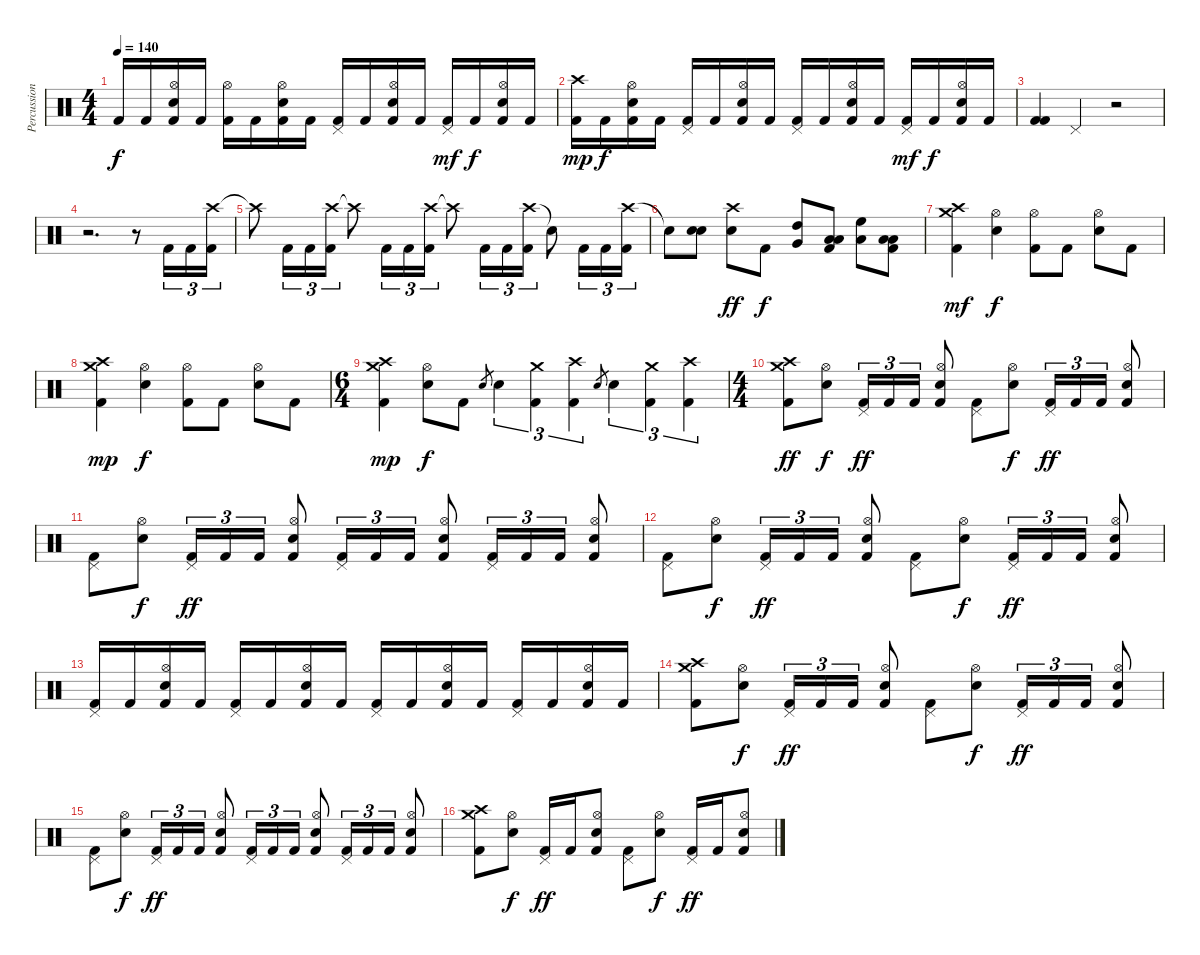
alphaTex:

\track ("Percussion" "Percussion") {instrument percussion}
\staff {score}
\articulation defaults
\ts (4 4)
\tempo 140
\clef neutral
\ks c "Kick (hit) 2".16{dy f} "Kick (hit) 2".16
("Hi-Hat (open)" "Electric Snare (hit)" "Kick (hit) 2").16 "Kick (hit) 2".16 ("Hi-Hat (open)" "Kick (hit) 2").16 "Kick (hit) 2".16 ("Hi-Hat (open)" "Electric Snare (hit)" "Kick (hit) 2").16 "Kick (hit) 2".16 ("Pedal Hi-Hat (hit)" "Kick (hit) 2").16 "Kick (hit) 2".16 ("Hi-Hat (open)" "Electric Snare (hit)" "Kick (hit) 2").16 "Kick (hit) 2".16 ("Pedal Hi-Hat (hit)" "Kick (hit) 2").16{dy mf} "Kick (hit) 2".16{dy f} ("Hi-Hat (open)" "Electric Snare (hit)" "Kick (hit) 2").16 "Kick (hit) 2".16 |
("Crash high (hit)" "Kick (hit) 2").16{dy mp} "Kick (hit) 2".16{dy f} ("Hi-Hat (open)" "Electric Snare (hit)" "Kick (hit) 2").16 "Kick (hit) 2".16 ("Pedal Hi-Hat (hit)" "Kick (hit) 2").16 "Kick (hit) 2".16 ("Hi-Hat (open)" "Electric Snare (hit)" "Kick (hit) 2").16 "Kick (hit) 2".16 ("Pedal Hi-Hat (hit)" "Kick (hit) 2").16 "Kick (hit) 2".16 ("Hi-Hat (open)" "Electric Snare (hit)" "Kick (hit) 2").16 "Kick (hit) 2".16 ("Pedal Hi-Hat (hit)" "Kick (hit) 2").16{dy mf} "Kick (hit) 2".16{dy f} ("Hi-Hat (open)" "Electric Snare (hit)" "Kick (hit) 2").16 "Kick (hit) 2".16 |
("Kick (hit) 2" "Kick (hit) 2").4 "Pedal Hi-Hat (hit)".4 r.2 |
r.2{d} r.8 "Kick (hit) 2".16{tu (3 2)} "Kick (hit) 2".16{tu (3 2)} ("Crash high (hit)" "Kick (hit) 2").16{tu (3 2)} |
"Crash high (hit)"{t}.8 "Kick (hit) 2".16{tu (3 2)} "Kick (hit) 2".16{tu (3 2)} ("Crash high (hit)" "Kick (hit) 2").16{tu (3 2)} "Crash high (hit)"{t}.8 "Kick (hit) 2".16{tu (3 2)} "Kick (hit) 2".16{tu (3 2)} ("Crash high (hit)" "Kick (hit) 2").16{tu (3 2)} "Crash high (hit)"{t}.8 "Kick (hit) 2".16{tu (3 2)} "Kick (hit) 2".16{tu (3 2)} ("Crash high (hit)" "Kick (hit) 2").16{tu (3 2)} "Snare (hit)"{t}.8 "Kick (hit) 2".16{tu (3 2)} "Kick (hit) 2".16{tu (3 2)} ("Crash high (hit)" "Kick (hit) 2").16{tu (3 2)} |
"Snare (hit)"{t}.8 ("Electric Snare (hit)" "Electric Snare (hit)").8 ("Crash high (hit)" "Electric Snare (hit)").8{dy ff} "Kick (hit) 2".8{dy f} ("Very Low Tom (hit)" "High Tom (hit)").8 ("Low Tom (hit)" "Low Tom (hit)" "Kick (hit) 2").8 ("Low Floor Tom (hit)" "High Floor Tom (hit)").8 ("Low Tom (hit)" "Low Tom (hit)" "Kick (hit) 2").8 |
("Crash medium (hit)" "Crash high (hit)" "Kick (hit) 2").4{dy mf} ("Hi-Hat (open)" "Electric Snare (hit)").4{dy f} ("Hi-Hat (open)" "Kick (hit) 2").8 "Kick (hit) 2".8 ("Hi-Hat (open)" "Electric Snare (hit)").8 "Kick (hit) 2".8 |
("Crash high (hit)" "Crash medium (hit)" "Kick (hit) 2").4{dy mp} ("Hi-Hat (open)" "Electric Snare (hit)").4{dy f} ("Hi-Hat (open)" "Kick (hit) 2").8 "Kick (hit) 2".8 ("Hi-Hat (open)" "Electric Snare (hit)").8 "Kick (hit) 2".8 |
\ts (6 4)
("Crash high (hit)" "Crash medium (hit)" "Kick (hit) 2").4{dy mp} ("Hi-Hat (open)" "Electric Snare (hit)").8{dy f} "Kick (hit) 2".8 "Electric Snare (hit)".8{gr} "Electric Snare (hit)".4{tu (3 2)} ("Crash medium (hit)" "Kick (hit) 2").4{tu (3 2)} ("Crash high (hit)" "Kick (hit) 2").4{tu (3 2)} "Electric Snare (hit)".8{gr} "Electric Snare (hit)".4{tu (3 2)} ("Crash medium (hit)" "Kick (hit) 2").4{tu (3 2)} ("Crash high (hit)" "Kick (hit) 2").4{tu (3 2)} |
\ts (4 4)
("Crash medium (hit)" "Crash high (hit)" "Kick (hit) 2").8{dy ff} ("Hi-Hat (open)" "Electric Snare (hit)").8{dy f} ("Pedal Hi-Hat (hit)" "Kick (hit) 2").16{tu (3 2) dy ff} "Kick (hit) 2".16{tu (3 2)} "Kick (hit) 2".16{tu (3 2)} ("Hi-Hat (open)" "Electric Snare (hit)" "Kick (hit) 2").8 ("Pedal Hi-Hat (hit)" "Kick (hit) 2").8 ("Hi-Hat (open)" "Electric Snare (hit)").8{dy f} ("Pedal Hi-Hat (hit)" "Kick (hit) 2").16{tu (3 2) dy ff} "Kick (hit) 2".16{tu (3 2)} "Kick (hit) 2".16{tu (3 2)} ("Hi-Hat (open)" "Electric Snare (hit)" "Kick (hit) 2").8 |
("Pedal Hi-Hat (hit)" "Kick (hit) 2").8 ("Hi-Hat (open)" "Electric Snare (hit)").8{dy f} ("Pedal Hi-Hat (hit)" "Kick (hit) 2").16{tu (3 2) dy ff} "Kick (hit) 2".16{tu (3 2)} "Kick (hit) 2".16{tu (3 2)} ("Hi-Hat (open)" "Electric Snare (hit)" "Kick (hit) 2").8 ("Pedal Hi-Hat (hit)" "Kick (hit) 2").16{tu (3 2)} "Kick (hit) 2".16{tu (3 2)} "Kick (hit) 2".16{tu (3 2)} ("Hi-Hat (open)" "Electric Snare (hit)" "Kick (hit) 2").8 ("Pedal Hi-Hat (hit)" "Kick (hit) 2").16{tu (3 2)} "Kick (hit) 2".16{tu (3 2)} "Kick (hit) 2".16{tu (3 2)} ("Hi-Hat (open)" "Electric Snare (hit)" "Kick (hit) 2").8 |
("Pedal Hi-Hat (hit)" "Kick (hit) 2").8 ("Hi-Hat (open)" "Electric Snare (hit)").8{dy f} ("Pedal Hi-Hat (hit)" "Kick (hit) 2").16{tu (3 2) dy ff} "Kick (hit) 2".16{tu (3 2)} "Kick (hit) 2".16{tu (3 2)} ("Hi-Hat (open)" "Electric Snare (hit)" "Kick (hit) 2").8 ("Pedal Hi-Hat (hit)" "Kick (hit) 2").8 ("Hi-Hat (open)" "Electric Snare (hit)").8{dy f} ("Pedal Hi-Hat (hit)" "Kick (hit) 2").16{tu (3 2) dy ff} "Kick (hit) 2".16{tu (3 2)} "Kick (hit) 2".16{tu (3 2)} ("Hi-Hat (open)" "Electric Snare (hit)" "Kick (hit) 2").8 |
("Pedal Hi-Hat (hit)" "Kick (hit) 2").16 "Kick (hit) 2".16 ("Hi-Hat (open)" "Electric Snare (hit)" "Kick (hit) 2").16 "Kick (hit) 2".16 ("Pedal Hi-Hat (hit)" "Kick (hit) 2").16 "Kick (hit) 2".16 ("Hi-Hat (open)" "Electric Snare (hit)" "Kick (hit) 2").16 "Kick (hit) 2".16 ("Pedal Hi-Hat (hit)" "Kick (hit) 2").16 "Kick (hit) 2".16 ("Hi-Hat (open)" "Electric Snare (hit)" "Kick (hit) 2").16 "Kick (hit) 2".16 ("Pedal Hi-Hat (hit)" "Kick (hit) 2").16 "Kick (hit) 2".16 ("Hi-Hat (open)" "Electric Snare (hit)" "Kick (hit) 2").16 "Kick (hit) 2".16 |
("Crash medium (hit)" "Crash high (hit)" "Kick (hit) 2").8 ("Hi-Hat (open)" "Electric Snare (hit)").8{dy f} ("Pedal Hi-Hat (hit)" "Kick (hit) 2").16{tu (3 2) dy ff} "Kick (hit) 2".16{tu (3 2)} "Kick (hit) 2".16{tu (3 2)} ("Hi-Hat (open)" "Electric Snare (hit)" "Kick (hit) 2").8 ("Pedal Hi-Hat (hit)" "Kick (hit) 2").8 ("Hi-Hat (open)" "Electric Snare (hit)").8{dy f} ("Pedal Hi-Hat (hit)" "Kick (hit) 2").16{tu (3 2) dy ff} "Kick (hit) 2".16{tu (3 2)} "Kick (hit) 2".16{tu (3 2)} ("Hi-Hat (open)" "Electric Snare (hit)" "Kick (hit) 2").8 |
("Pedal Hi-Hat (hit)" "Kick (hit) 2").8 ("Hi-Hat (open)" "Electric Snare (hit)").8{dy f} ("Pedal Hi-Hat (hit)" "Kick (hit) 2").16{tu (3 2) dy ff} "Kick (hit) 2".16{tu (3 2)} "Kick (hit) 2".16{tu (3 2)} ("Hi-Hat (open)" "Electric Snare (hit)" "Kick (hit) 2").8 ("Pedal Hi-Hat (hit)" "Kick (hit) 2").16{tu (3 2)} "Kick (hit) 2".16{tu (3 2)} "Kick (hit) 2".16{tu (3 2)} ("Hi-Hat (open)" "Electric Snare (hit)" "Kick (hit) 2").8 ("Pedal Hi-Hat (hit)" "Kick (hit) 2").16{tu (3 2)} "Kick (hit) 2".16{tu (3 2)} "Kick (hit) 2".16{tu (3 2)} ("Hi-Hat (open)" "Electric Snare (hit)" "Kick (hit) 2").8 |
("Crash medium (hit)" "Crash high (hit)" "Kick (hit) 2").8 ("Hi-Hat (open)" "Electric Snare (hit)").8{dy f} ("Pedal Hi-Hat (hit)" "Kick (hit) 2").16{dy ff} "Kick (hit) 2".16 ("Hi-Hat (open)" "Electric Snare (hit)" "Kick (hit) 2").8 ("Pedal Hi-Hat (hit)" "Kick (hit) 2").8 ("Hi-Hat (open)" "Electric Snare (hit)").8{dy f} ("Pedal Hi-Hat (hit)" "Kick (hit) 2").16{dy ff} "Kick (hit) 2".16 ("Hi-Hat (open)" "Electric Snare (hit)" "Kick (hit) 2").8
